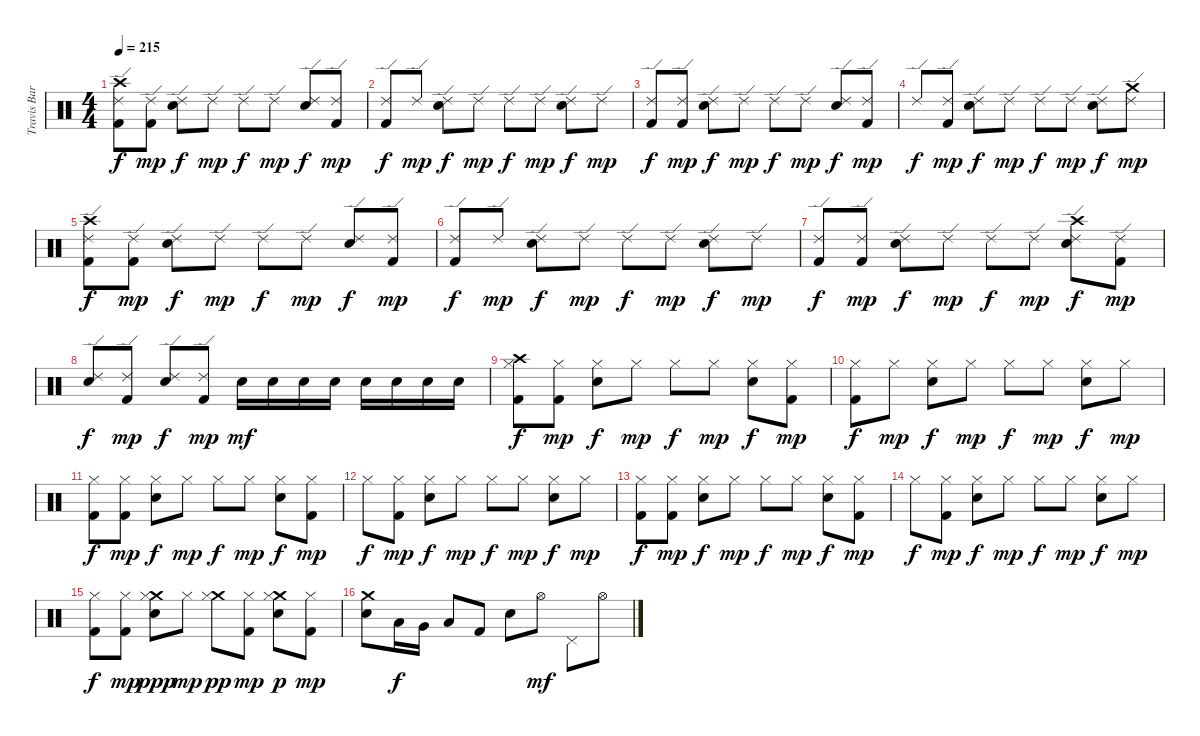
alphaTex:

\track ("Travis Barker" "Travis Bar") {instrument percussion}
\staff {score}
\articulation defaults
\ts (4 4)
\tempo 215
\clef neutral
\ks c
("Crash high (hit)" "Ride (edge) 2" "Kick (hit) 2").8{dy f} ("Ride (edge) 2" "Kick (hit) 2").8{dy mp} ("Ride (edge) 2" "Snare (hit) 2").8{dy f} "Ride (edge) 2".8{dy mp} "Ride (edge) 2".8{dy f} "Ride (edge) 2".8{dy mp} ("Ride (edge) 2" "Snare (hit) 2").8{dy f} ("Ride (edge) 2" "Kick (hit) 2").8{dy mp} |
("Ride (edge) 2" "Kick (hit) 2").8{dy f} "Ride (edge) 2".8{dy mp} ("Ride (edge) 2" "Snare (hit) 2").8{dy f} "Ride (edge) 2".8{dy mp} "Ride (edge) 2".8{dy f} "Ride (edge) 2".8{dy mp} ("Ride (edge) 2" "Snare (hit) 2").8{dy f} "Ride (edge) 2".8{dy mp} |
("Ride (edge) 2" "Kick (hit) 2").8{dy f} ("Ride (edge) 2" "Kick (hit) 2").8{dy mp} ("Ride (edge) 2" "Snare (hit) 2").8{dy f} "Ride (edge) 2".8{dy mp} "Ride (edge) 2".8{dy f} "Ride (edge) 2".8{dy mp} ("Ride (edge) 2" "Snare (hit) 2").8{dy f} ("Ride (edge) 2" "Kick (hit) 2").8{dy mp} |
"Ride (edge) 2".8{dy f} ("Ride (edge) 2" "Kick (hit) 2").8{dy mp} ("Ride (edge) 2" "Snare (hit) 2").8{dy f} "Ride (edge) 2".8{dy mp} "Ride (edge) 2".8{dy f} "Ride (edge) 2".8{dy mp} ("Ride (edge) 2" "Snare (hit) 2").8{dy f} ("Crash medium (hit)" "Ride (edge) 2").8{dy mp} |
("Crash high (hit)" "Ride (edge) 2" "Kick (hit) 2").8{dy f} ("Ride (edge) 2" "Kick (hit) 2").8{dy mp} ("Ride (edge) 2" "Snare (hit) 2").8{dy f} "Ride (edge) 2".8{dy mp} "Ride (edge) 2".8{dy f} "Ride (edge) 2".8{dy mp} ("Ride (edge) 2" "Snare (hit) 2").8{dy f} ("Ride (edge) 2" "Kick (hit) 2").8{dy mp} |
("Ride (edge) 2" "Kick (hit) 2").8{dy f} "Ride (edge) 2".8{dy mp} ("Ride (edge) 2" "Snare (hit) 2").8{dy f} "Ride (edge) 2".8{dy mp} "Ride (edge) 2".8{dy f} "Ride (edge) 2".8{dy mp} ("Ride (edge) 2" "Snare (hit) 2").8{dy f} "Ride (edge) 2".8{dy mp} |
("Ride (edge) 2" "Kick (hit) 2").8{dy f} ("Ride (edge) 2" "Kick (hit) 2").8{dy mp} ("Ride (edge) 2" "Snare (hit) 2").8{dy f} "Ride (edge) 2".8{dy mp} "Ride (edge) 2".8{dy f} "Ride (edge) 2".8{dy mp} ("Crash high (hit)" "Ride (edge) 2" "Snare (hit) 2").8{dy f} ("Ride (edge) 2" "Kick (hit) 2").8{dy mp} |
("Ride (edge) 2" "Snare (hit) 2").8{dy f} ("Ride (edge) 2" "Kick (hit) 2").8{dy mp} ("Ride (edge) 2" "Snare (hit) 2").8{dy f} ("Ride (edge) 2" "Kick (hit) 2").8{dy mp} "Snare (hit) 2".16{dy mf} "Snare (hit) 2".16 "Snare (hit) 2".16 "Snare (hit) 2".16 "Snare (hit) 2".16 "Snare (hit) 2".16 "Snare (hit) 2".16 "Snare (hit) 2".16 |
("Crash high (hit)" "Hi-Hat (closed)" "Kick (hit) 2").8{dy f} ("Hi-Hat (closed)" "Kick (hit) 2").8{dy mp} ("Hi-Hat (closed)" "Snare (hit) 2").8{dy f} "Hi-Hat (closed)".8{dy mp} "Hi-Hat (closed)".8{dy f} "Hi-Hat (closed)".8{dy mp} ("Hi-Hat (closed)" "Snare (hit) 2").8{dy f} ("Hi-Hat (closed)" "Kick (hit) 2").8{dy mp} |
("Hi-Hat (closed)" "Kick (hit) 2").8{dy f} "Hi-Hat (closed)".8{dy mp} ("Hi-Hat (closed)" "Snare (hit) 2").8{dy f} "Hi-Hat (closed)".8{dy mp} "Hi-Hat (closed)".8{dy f} "Hi-Hat (closed)".8{dy mp} ("Hi-Hat (closed)" "Snare (hit) 2").8{dy f} "Hi-Hat (closed)".8{dy mp} |
("Hi-Hat (closed)" "Kick (hit) 2").8{dy f} ("Hi-Hat (closed)" "Kick (hit) 2").8{dy mp} ("Hi-Hat (closed)" "Snare (hit) 2").8{dy f} "Hi-Hat (closed)".8{dy mp} "Hi-Hat (closed)".8{dy f} "Hi-Hat (closed)".8{dy mp} ("Hi-Hat (closed)" "Snare (hit) 2").8{dy f} ("Hi-Hat (closed)" "Kick (hit) 2").8{dy mp} |
"Hi-Hat (closed)".8{dy f} ("Hi-Hat (closed)" "Kick (hit) 2").8{dy mp} ("Hi-Hat (closed)" "Snare (hit) 2").8{dy f} "Hi-Hat (closed)".8{dy mp} "Hi-Hat (closed)".8{dy f} "Hi-Hat (closed)".8{dy mp} ("Hi-Hat (closed)" "Snare (hit) 2").8{dy f} "Hi-Hat (closed)".8{dy mp} |
("Hi-Hat (closed)" "Kick (hit) 2").8{dy f} ("Hi-Hat (closed)" "Kick (hit) 2").8{dy mp} ("Hi-Hat (closed)" "Snare (hit) 2").8{dy f} "Hi-Hat (closed)".8{dy mp} "Hi-Hat (closed)".8{dy f} "Hi-Hat (closed)".8{dy mp} ("Hi-Hat (closed)" "Snare (hit) 2").8{dy f} ("Hi-Hat (closed)" "Kick (hit) 2").8{dy mp} |
"Hi-Hat (closed)".8{dy f} ("Hi-Hat (closed)" "Kick (hit) 2").8{dy mp} ("Hi-Hat (closed)" "Snare (hit) 2").8{dy f} "Hi-Hat (closed)".8{dy mp} "Hi-Hat (closed)".8{dy f} "Hi-Hat (closed)".8{dy mp} ("Hi-Hat (closed)" "Snare (hit) 2").8{dy f} "Hi-Hat (closed)".8{dy mp} |
("Hi-Hat (closed)" "Kick (hit) 2").8{dy f} ("Hi-Hat (closed)" "Kick (hit) 2").8{dy mp} ("Crash medium (hit)" "Hi-Hat (closed)" "Snare (hit) 2").8{dy ppp} "Hi-Hat (closed)".8{dy mp} ("Crash medium (hit)" "Hi-Hat (closed)").8{dy pp} ("Hi-Hat (closed)" "Kick (hit) 2").8{dy mp} ("Crash medium (hit)" "Hi-Hat (closed)" "Snare (hit) 2").8{dy p} ("Hi-Hat (closed)" "Kick (hit) 2").8{dy mp} |
("Crash medium (hit)" "Snare (hit) 2").8 "Low Tom (hit)".16{dy f} "Very Low Tom (hit)".16 "Low Floor Tom (hit)".8 "Kick (hit) 2".8 "Snare (hit) 2".8 "Hi-Hat (open)".8{dy mf} "Pedal Hi-Hat (hit)".8 "Hi-Hat (open)".8
